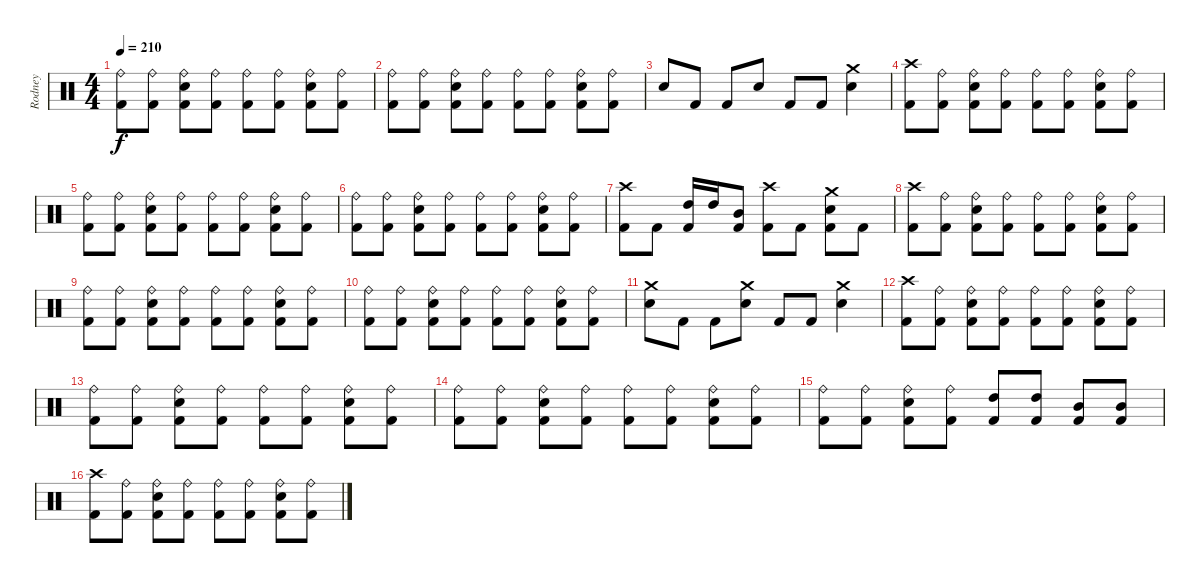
\track ("Rodney" "Rodney") {instrument percussion}
\staff {score}
\articulation defaults
\ts (4 4)
\tempo 210
\clef neutral
\ks c
("Ride (bell)" "Kick (hit) 2").8{dy f} ("Ride (bell)" "Kick (hit) 2").8 ("Ride (bell)" "Snare (hit) 2" "Kick (hit) 2").8 ("Ride (bell)" "Kick (hit) 2").8 ("Ride (bell)" "Kick (hit) 2").8 ("Ride (bell)" "Kick (hit) 2").8 ("Ride (bell)" "Snare (hit) 2" "Kick (hit) 2").8 ("Ride (bell)" "Kick (hit) 2").8 |
("Ride (bell)" "Kick (hit) 2").8 ("Ride (bell)" "Kick (hit) 2").8 ("Ride (bell)" "Snare (hit) 2" "Kick (hit) 2").8 ("Ride (bell)" "Kick (hit) 2").8 ("Ride (bell)" "Kick (hit) 2").8 ("Ride (bell)" "Kick (hit) 2").8 ("Ride (bell)" "Snare (hit) 2" "Kick (hit) 2").8 ("Ride (bell)" "Kick (hit) 2").8 |
"Snare (hit) 2".8 "Kick (hit) 2".8 "Kick (hit) 2".8 "Snare (hit) 2".8 "Kick (hit) 2".8 "Kick (hit) 2".8 ("Crash medium (hit)" "Snare (hit) 2").4 |
("Crash high (hit)" "Kick (hit) 2").8 ("Ride (bell)" "Kick (hit) 2").8 ("Ride (bell)" "Snare (hit) 2" "Kick (hit) 2").8 ("Ride (bell)" "Kick (hit) 2").8 ("Ride (bell)" "Kick (hit) 2").8 ("Ride (bell)" "Kick (hit) 2").8 ("Ride (bell)" "Snare (hit) 2" "Kick (hit) 2").8 ("Ride (bell)" "Kick (hit) 2").8 |
("Ride (bell)" "Kick (hit) 2").8 ("Ride (bell)" "Kick (hit) 2").8 ("Ride (bell)" "Snare (hit) 2" "Kick (hit) 2").8 ("Ride (bell)" "Kick (hit) 2").8 ("Ride (bell)" "Kick (hit) 2").8 ("Ride (bell)" "Kick (hit) 2").8 ("Ride (bell)" "Snare (hit) 2" "Kick (hit) 2").8 ("Ride (bell)" "Kick (hit) 2").8 |
("Ride (bell)" "Kick (hit) 2").8 ("Ride (bell)" "Kick (hit) 2").8 ("Ride (bell)" "Snare (hit) 2" "Kick (hit) 2").8 ("Ride (bell)" "Kick (hit) 2").8 ("Ride (bell)" "Kick (hit) 2").8 ("Ride (bell)" "Kick (hit) 2").8 ("Ride (bell)" "Snare (hit) 2" "Kick (hit) 2").8 ("Ride (bell)" "Kick (hit) 2").8 |
("Crash high (hit)" "Kick (hit) 2").8 "Kick (hit) 2".8 ("High Tom (hit)" "Kick (hit) 2").16 "High Tom (hit)".16 ("Mid Tom (hit)" "Kick (hit) 2").8 ("Crash high (hit)" "Kick (hit) 2").8 "Kick (hit) 2".8 ("Crash medium (hit)" "Snare (hit) 2" "Kick (hit) 2").8 "Kick (hit) 2".8 |
("Crash high (hit)" "Kick (hit) 2").8 ("Ride (bell)" "Kick (hit) 2").8 ("Ride (bell)" "Snare (hit) 2" "Kick (hit) 2").8 ("Ride (bell)" "Kick (hit) 2").8 ("Ride (bell)" "Kick (hit) 2").8 ("Ride (bell)" "Kick (hit) 2").8 ("Ride (bell)" "Snare (hit) 2" "Kick (hit) 2").8 ("Ride (bell)" "Kick (hit) 2").8 |
("Ride (bell)" "Kick (hit) 2").8 ("Ride (bell)" "Kick (hit) 2").8 ("Ride (bell)" "Snare (hit) 2" "Kick (hit) 2").8 ("Ride (bell)" "Kick (hit) 2").8 ("Ride (bell)" "Kick (hit) 2").8 ("Ride (bell)" "Kick (hit) 2").8 ("Ride (bell)" "Snare (hit) 2" "Kick (hit) 2").8 ("Ride (bell)" "Kick (hit) 2").8 |
("Ride (bell)" "Kick (hit) 2").8 ("Ride (bell)" "Kick (hit) 2").8 ("Ride (bell)" "Snare (hit) 2" "Kick (hit) 2").8 ("Ride (bell)" "Kick (hit) 2").8 ("Ride (bell)" "Kick (hit) 2").8 ("Ride (bell)" "Kick (hit) 2").8 ("Ride (bell)" "Snare (hit) 2" "Kick (hit) 2").8 ("Ride (bell)" "Kick (hit) 2").8 |
("Crash medium (hit)" "Snare (hit) 2").8 "Kick (hit) 2".8 "Kick (hit) 2".8 ("Crash medium (hit)" "Snare (hit) 2").8 "Kick (hit) 2".8 "Kick (hit) 2".8 ("Crash medium (hit)" "Snare (hit) 2").4 |
("Crash high (hit)" "Kick (hit) 2").8 ("Ride (bell)" "Kick (hit) 2").8 ("Ride (bell)" "Snare (hit) 2" "Kick (hit) 2").8 ("Ride (bell)" "Kick (hit) 2").8 ("Ride (bell)" "Kick (hit) 2").8 ("Ride (bell)" "Kick (hit) 2").8 ("Ride (bell)" "Snare (hit) 2" "Kick (hit) 2").8 ("Ride (bell)" "Kick (hit) 2").8 |
("Ride (bell)" "Kick (hit) 2").8 ("Ride (bell)" "Kick (hit) 2").8 ("Ride (bell)" "Snare (hit) 2" "Kick (hit) 2").8 ("Ride (bell)" "Kick (hit) 2").8 ("Ride (bell)" "Kick (hit) 2").8 ("Ride (bell)" "Kick (hit) 2").8 ("Ride (bell)" "Snare (hit) 2" "Kick (hit) 2").8 ("Ride (bell)" "Kick (hit) 2").8 |
("Ride (bell)" "Kick (hit) 2").8 ("Ride (bell)" "Kick (hit) 2").8 ("Ride (bell)" "Snare (hit) 2" "Kick (hit) 2").8 ("Ride (bell)" "Kick (hit) 2").8 ("Ride (bell)" "Kick (hit) 2").8 ("Ride (bell)" "Kick (hit) 2").8 ("Ride (bell)" "Snare (hit) 2" "Kick (hit) 2").8 ("Ride (bell)" "Kick (hit) 2").8 |
("Ride (bell)" "Kick (hit) 2").8 ("Ride (bell)" "Kick (hit) 2").8 ("Ride (bell)" "Snare (hit) 2" "Kick (hit) 2").8 ("Ride (bell)" "Kick (hit) 2").8 ("High Tom (hit)" "Kick (hit) 2").8 ("High Tom (hit)" "Kick (hit) 2").8 ("Mid Tom (hit)" "Kick (hit) 2").8 ("Mid Tom (hit)" "Kick (hit) 2").8 |
("Crash high (hit)" "Kick (hit) 2").8 ("Ride (bell)" "Kick (hit) 2").8 ("Ride (bell)" "Snare (hit) 2" "Kick (hit) 2").8 ("Ride (bell)" "Kick (hit) 2").8 ("Ride (bell)" "Kick (hit) 2").8 ("Ride (bell)" "Kick (hit) 2").8 ("Ride (bell)" "Snare (hit) 2" "Kick (hit) 2").8 ("Ride (bell)" "Kick (hit) 2").8
